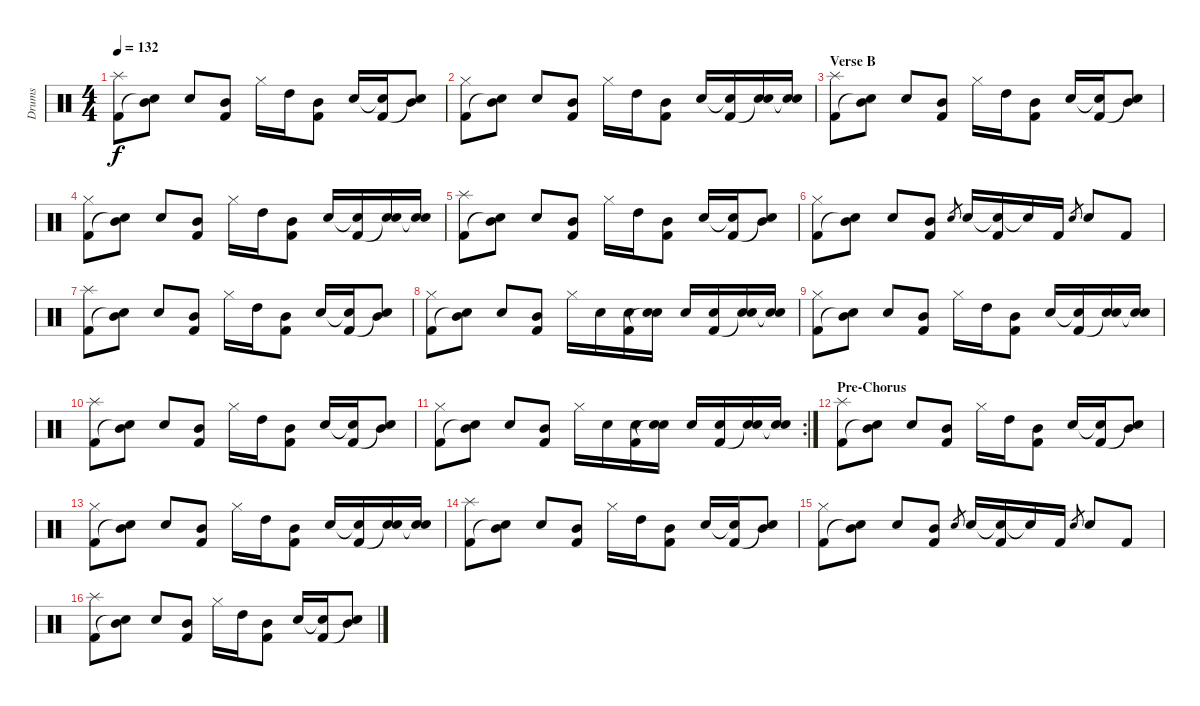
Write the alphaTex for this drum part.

\track ("Drums" "Drums") {instrument percussion}
\staff {score}
\articulation defaults
\ts (4 4)
\tempo 132
\clef neutral
\ks c
("Splash (hit)" "Kick (hit) 2").8{dy f} ("Mid Tom (hit)" "Snare (hit)"{t}).8 "Electric Snare (hit)".8 ("Mid Tom (hit)" "Kick (hit) 2").8 "Hi-Hat (closed)".16 "High Tom (hit)".16 ("Mid Tom (hit)" "Kick (hit) 2").8 "Electric Snare (hit)".16 ("Snare (hit)"{t} "Kick (hit) 2").16 ("Mid Tom (hit)" "Snare (hit)"{t}).8 |
("Hi-Hat (closed)" "Kick (hit) 2").8 ("Mid Tom (hit)" "Snare (hit)"{t}).8 "Electric Snare (hit)".8 ("Mid Tom (hit)" "Kick (hit) 2").8 "Hi-Hat (closed)".16 "High Tom (hit)".16 ("Mid Tom (hit)" "Kick (hit) 2").8 "Electric Snare (hit)".16 ("Snare (hit)"{t} "Kick (hit) 2").16 ("Electric Snare (hit)" "Snare (hit)"{t}).16 ("Electric Snare (hit)" "Snare (hit)"{t}).16 |
\section ("" "Verse B")
("Splash (hit)" "Kick (hit) 2").8 ("Mid Tom (hit)" "Snare (hit)"{t}).8 "Electric Snare (hit)".8 ("Mid Tom (hit)" "Kick (hit) 2").8 "Hi-Hat (closed)".16 "High Tom (hit)".16 ("Mid Tom (hit)" "Kick (hit) 2").8 "Electric Snare (hit)".16 ("Snare (hit)"{t} "Kick (hit) 2").16 ("Mid Tom (hit)" "Snare (hit)"{t}).8 |
("Hi-Hat (closed)" "Kick (hit) 2").8 ("Mid Tom (hit)" "Snare (hit)"{t}).8 "Electric Snare (hit)".8 ("Mid Tom (hit)" "Kick (hit) 2").8 "Hi-Hat (closed)".16 "High Tom (hit)".16 ("Mid Tom (hit)" "Kick (hit) 2").8 "Electric Snare (hit)".16 ("Snare (hit)"{t} "Kick (hit) 2").16 ("Electric Snare (hit)" "Snare (hit)"{t}).16 ("Electric Snare (hit)" "Snare (hit)"{t}).16 |
("Splash (hit)" "Kick (hit) 2").8 ("Mid Tom (hit)" "Snare (hit)"{t}).8 "Electric Snare (hit)".8 ("Mid Tom (hit)" "Kick (hit) 2").8 "Hi-Hat (closed)".16 "High Tom (hit)".16 ("Mid Tom (hit)" "Kick (hit) 2").8 "Electric Snare (hit)".16 ("Snare (hit)"{t} "Kick (hit) 2").16 ("Mid Tom (hit)" "Snare (hit)"{t}).8 |
("Hi-Hat (closed)" "Kick (hit) 2").8 ("Mid Tom (hit)" "Snare (hit)"{t}).8 "Electric Snare (hit)".8 ("Mid Tom (hit)" "Kick (hit) 2").8 "Electric Snare (hit)".8{gr} "Electric Snare (hit)".16 ("Snare (hit)"{t} "Kick (hit) 2").16 "Snare (hit)"{t}.16 "Kick (hit) 2".16 "Electric Snare (hit)".8{gr} "Electric Snare (hit)".8 "Kick (hit) 2".8 |
("Splash (hit)" "Kick (hit) 2").8 ("Mid Tom (hit)" "Snare (hit)"{t}).8 "Electric Snare (hit)".8 ("Mid Tom (hit)" "Kick (hit) 2").8 "Hi-Hat (closed)".16 "High Tom (hit)".16 ("Mid Tom (hit)" "Kick (hit) 2").8 "Electric Snare (hit)".16 ("Snare (hit)"{t} "Kick (hit) 2").16 ("Mid Tom (hit)" "Snare (hit)"{t}).8 |
("Hi-Hat (closed)" "Kick (hit) 2").8 ("Mid Tom (hit)" "Snare (hit)"{t}).8 "Electric Snare (hit)".8 ("Mid Tom (hit)" "Kick (hit) 2").8 "Hi-Hat (closed)".16 "Electric Snare (hit)".16 ("Electric Snare (hit)" "Kick (hit) 2").16 ("Electric Snare (hit)" "Snare (hit)"{t}).16 "Electric Snare (hit)".16 ("Electric Snare (hit)" "Kick (hit) 2").16 ("Electric Snare (hit)" "Snare (hit)"{t}).16 ("Electric Snare (hit)" "Snare (hit)"{t}).16 |
("Hi-Hat (closed)" "Kick (hit) 2").8 ("Mid Tom (hit)" "Snare (hit)"{t}).8 "Electric Snare (hit)".8 ("Mid Tom (hit)" "Kick (hit) 2").8 "Hi-Hat (closed)".16 "High Tom (hit)".16 ("Mid Tom (hit)" "Kick (hit) 2").8 "Electric Snare (hit)".16 ("Snare (hit)"{t} "Kick (hit) 2").16 ("Electric Snare (hit)" "Snare (hit)"{t}).16 ("Electric Snare (hit)" "Snare (hit)"{t}).16 |
("Splash (hit)" "Kick (hit) 2").8 ("Mid Tom (hit)" "Snare (hit)"{t}).8 "Electric Snare (hit)".8 ("Mid Tom (hit)" "Kick (hit) 2").8 "Hi-Hat (closed)".16 "High Tom (hit)".16 ("Mid Tom (hit)" "Kick (hit) 2").8 "Electric Snare (hit)".16 ("Snare (hit)"{t} "Kick (hit) 2").16 ("Mid Tom (hit)" "Snare (hit)"{t}).8 |
\rc 2
("Hi-Hat (closed)" "Kick (hit) 2").8 ("Mid Tom (hit)" "Snare (hit)"{t}).8 "Electric Snare (hit)".8 ("Mid Tom (hit)" "Kick (hit) 2").8 "Hi-Hat (closed)".16 "Electric Snare (hit)".16 ("Electric Snare (hit)" "Kick (hit) 2").16 ("Electric Snare (hit)" "Snare (hit)"{t}).16 "Electric Snare (hit)".16 ("Electric Snare (hit)" "Kick (hit) 2").16 ("Electric Snare (hit)" "Snare (hit)"{t}).16 ("Electric Snare (hit)" "Snare (hit)"{t}).16 |
\section ("" "Pre-Chorus")
("Splash (hit)" "Kick (hit) 2").8 ("Mid Tom (hit)" "Snare (hit)"{t}).8 "Electric Snare (hit)".8 ("Mid Tom (hit)" "Kick (hit) 2").8 "Hi-Hat (closed)".16 "High Tom (hit)".16 ("Mid Tom (hit)" "Kick (hit) 2").8 "Electric Snare (hit)".16 ("Snare (hit)"{t} "Kick (hit) 2").16 ("Mid Tom (hit)" "Snare (hit)"{t}).8 |
("Hi-Hat (closed)" "Kick (hit) 2").8 ("Mid Tom (hit)" "Snare (hit)"{t}).8 "Electric Snare (hit)".8 ("Mid Tom (hit)" "Kick (hit) 2").8 "Hi-Hat (closed)".16 "High Tom (hit)".16 ("Mid Tom (hit)" "Kick (hit) 2").8 "Electric Snare (hit)".16 ("Snare (hit)"{t} "Kick (hit) 2").16 ("Electric Snare (hit)" "Snare (hit)"{t}).16 ("Electric Snare (hit)" "Snare (hit)"{t}).16 |
("Splash (hit)" "Kick (hit) 2").8 ("Mid Tom (hit)" "Snare (hit)"{t}).8 "Electric Snare (hit)".8 ("Mid Tom (hit)" "Kick (hit) 2").8 "Hi-Hat (closed)".16 "High Tom (hit)".16 ("Mid Tom (hit)" "Kick (hit) 2").8 "Electric Snare (hit)".16 ("Snare (hit)"{t} "Kick (hit) 2").16 ("Mid Tom (hit)" "Snare (hit)"{t}).8 |
("Hi-Hat (closed)" "Kick (hit) 2").8 ("Mid Tom (hit)" "Snare (hit)"{t}).8 "Electric Snare (hit)".8 ("Mid Tom (hit)" "Kick (hit) 2").8 "Electric Snare (hit)".8{gr} "Electric Snare (hit)".16 ("Snare (hit)"{t} "Kick (hit) 2").16 "Snare (hit)"{t}.16 "Kick (hit) 2".16 "Electric Snare (hit)".8{gr} "Electric Snare (hit)".8 "Kick (hit) 2".8 |
("Splash (hit)" "Kick (hit) 2").8 ("Mid Tom (hit)" "Snare (hit)"{t}).8 "Electric Snare (hit)".8 ("Mid Tom (hit)" "Kick (hit) 2").8 "Hi-Hat (closed)".16 "High Tom (hit)".16 ("Mid Tom (hit)" "Kick (hit) 2").8 "Electric Snare (hit)".16 ("Snare (hit)"{t} "Kick (hit) 2").16 ("Mid Tom (hit)" "Snare (hit)"{t}).8
